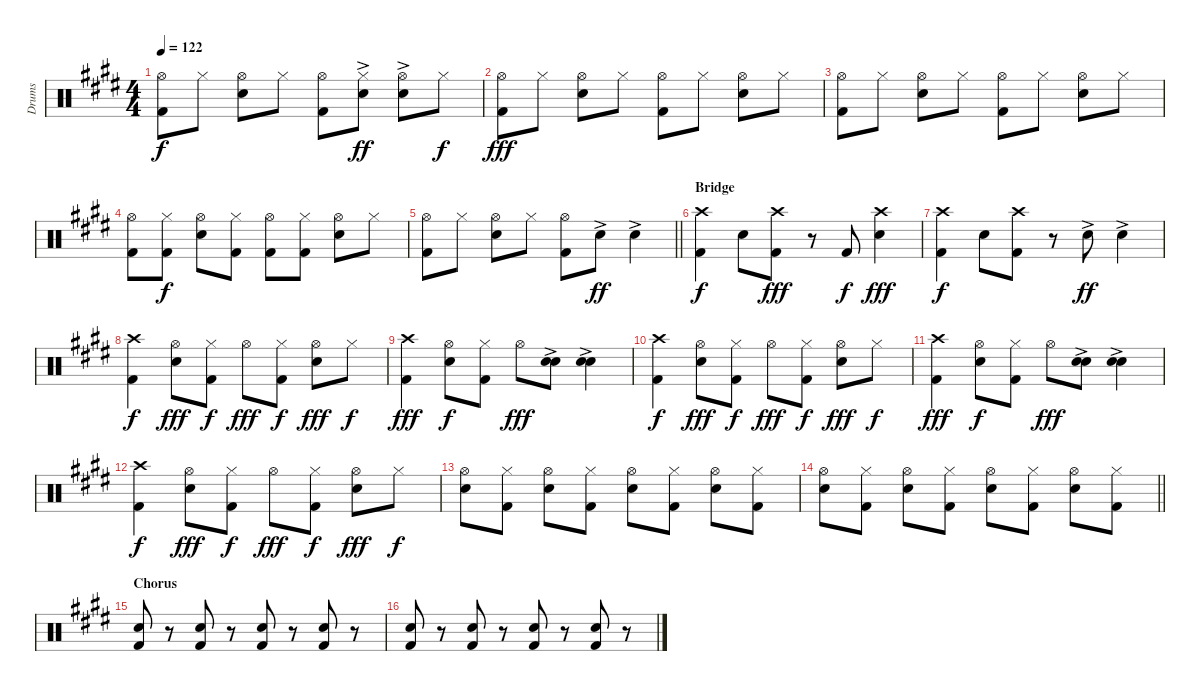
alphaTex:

\track ("Drums" "Drums") {instrument percussion}
\staff {score}
\articulation defaults
\ts (4 4)
\tempo 122
\clef neutral
\ks e
("Hi-Hat (open)" "Kick (hit) 2").8{dy f} "Hi-Hat (closed)".8 ("Hi-Hat (open)" "Electric Snare (hit)").8 "Hi-Hat (closed)".8 ("Hi-Hat (open)" "Kick (hit) 2").8 ("Hi-Hat (closed)" "Electric Snare (hit)"{ac}).8{dy ff} ("Hi-Hat (open)" "Electric Snare (hit)"{ac}).8 "Hi-Hat (closed)".8{dy f} |
("Hi-Hat (open)" "Kick (hit) 2").8{dy fff} "Hi-Hat (closed)".8 ("Hi-Hat (open)" "Electric Snare (hit)").8 "Hi-Hat (closed)".8 ("Hi-Hat (open)" "Kick (hit) 2").8 "Hi-Hat (closed)".8 ("Hi-Hat (open)" "Electric Snare (hit)").8 "Hi-Hat (closed)".8 |
("Hi-Hat (open)" "Kick (hit) 2").8 "Hi-Hat (closed)".8 ("Hi-Hat (open)" "Electric Snare (hit)").8 "Hi-Hat (closed)".8 ("Hi-Hat (open)" "Kick (hit) 2").8 "Hi-Hat (closed)".8 ("Hi-Hat (open)" "Electric Snare (hit)").8 "Hi-Hat (closed)".8 |
("Hi-Hat (open)" "Kick (hit) 2").8 ("Hi-Hat (closed)" "Kick (hit) 2").8{dy f} ("Hi-Hat (open)" "Electric Snare (hit)").8 ("Hi-Hat (closed)" "Kick (hit) 2").8 ("Hi-Hat (open)" "Kick (hit) 2").8 ("Hi-Hat (closed)" "Kick (hit) 2").8 ("Hi-Hat (open)" "Electric Snare (hit)").8 "Hi-Hat (closed)".8 |
\barLineRight lightlight
("Hi-Hat (open)" "Kick (hit) 2").8 "Hi-Hat (closed)".8 ("Hi-Hat (open)" "Electric Snare (hit)").8 "Hi-Hat (closed)".8 ("Hi-Hat (open)" "Kick (hit) 2").8 "Electric Snare (hit)"{ac}.8{dy ff} "Electric Snare (hit)"{ac}.4 |
\section ("" "Bridge")
("Crash high (hit)" "Kick (hit) 2").4{dy f} "Electric Snare (hit)".8 ("Crash high (hit)" "Kick (hit) 2").8{dy fff} r.8 "Kick (hit) 2".8{dy f} ("Crash high (hit)" "Electric Snare (hit)").4{dy fff} |
("Crash high (hit)" "Kick (hit) 2").4{dy f} "Electric Snare (hit)".8 ("Crash high (hit)" "Kick (hit) 2").8 r.8 "Electric Snare (hit)"{ac}.8{dy ff} "Electric Snare (hit)"{ac}.4 |
("Crash high (hit)" "Kick (hit) 2").4{dy f} ("Hi-Hat (open)" "Electric Snare (hit)").8{dy fff} ("Hi-Hat (closed)" "Kick (hit) 2").8{dy f} "Hi-Hat (open)".8{dy fff} ("Hi-Hat (closed)" "Kick (hit) 2").8{dy f} ("Hi-Hat (open)" "Electric Snare (hit)").8{dy fff} "Hi-Hat (closed)".8{dy f} |
("Crash high (hit)" "Kick (hit) 2").4{dy fff} ("Hi-Hat (open)" "Electric Snare (hit)").8{dy f} ("Hi-Hat (closed)" "Kick (hit) 2").8 "Hi-Hat (open)".8{dy fff} ("Hand Clap (hit)" "Electric Snare (hit)"{ac}).8 ("Hand Clap (hit)" "Electric Snare (hit)"{ac}).4 |
("Crash high (hit)" "Kick (hit) 2").4{dy f} ("Hi-Hat (open)" "Electric Snare (hit)").8{dy fff} ("Hi-Hat (closed)" "Kick (hit) 2").8{dy f} "Hi-Hat (open)".8{dy fff} ("Hi-Hat (closed)" "Kick (hit) 2").8{dy f} ("Hi-Hat (open)" "Electric Snare (hit)").8{dy fff} "Hi-Hat (closed)".8{dy f} |
("Crash high (hit)" "Kick (hit) 2").4{dy fff} ("Hi-Hat (open)" "Electric Snare (hit)").8{dy f} ("Hi-Hat (closed)" "Kick (hit) 2").8 "Hi-Hat (open)".8{dy fff} ("Hand Clap (hit)" "Electric Snare (hit)"{ac}).8 ("Hand Clap (hit)" "Electric Snare (hit)"{ac}).4 |
("Crash high (hit)" "Kick (hit) 2").4{dy f} ("Hi-Hat (open)" "Electric Snare (hit)").8{dy fff} ("Hi-Hat (closed)" "Kick (hit) 2").8{dy f} "Hi-Hat (open)".8{dy fff} ("Hi-Hat (closed)" "Kick (hit) 2").8{dy f} ("Hi-Hat (open)" "Electric Snare (hit)").8{dy fff} "Hi-Hat (closed)".8{dy f} |
("Hi-Hat (open)" "Electric Snare (hit)").8 ("Hi-Hat (closed)" "Kick (hit) 2").8 ("Hi-Hat (open)" "Electric Snare (hit)").8 ("Hi-Hat (closed)" "Kick (hit) 2").8 ("Hi-Hat (open)" "Electric Snare (hit)").8 ("Hi-Hat (closed)" "Kick (hit) 2").8 ("Hi-Hat (open)" "Electric Snare (hit)").8 ("Hi-Hat (closed)" "Kick (hit) 2").8 |
\barLineRight lightlight
("Hi-Hat (open)" "Electric Snare (hit)").8 ("Hi-Hat (closed)" "Kick (hit) 2").8 ("Hi-Hat (open)" "Electric Snare (hit)").8 ("Hi-Hat (closed)" "Kick (hit) 2").8 ("Hi-Hat (open)" "Electric Snare (hit)").8 ("Hi-Hat (closed)" "Kick (hit) 2").8 ("Hi-Hat (open)" "Electric Snare (hit)").8 ("Hi-Hat (closed)" "Kick (hit) 2").8 |
\section ("" "Chorus")
("Electric Snare (hit)" "Kick (hit) 2").8 r.8 ("Electric Snare (hit)" "Kick (hit) 2").8 r.8 ("Electric Snare (hit)" "Kick (hit) 2").8 r.8 ("Electric Snare (hit)" "Kick (hit) 2").8 r.8 |
("Electric Snare (hit)" "Kick (hit) 2").8 r.8 ("Electric Snare (hit)" "Kick (hit) 2").8 r.8 ("Electric Snare (hit)" "Kick (hit) 2").8 r.8 ("Electric Snare (hit)" "Kick (hit) 2").8 r.8
